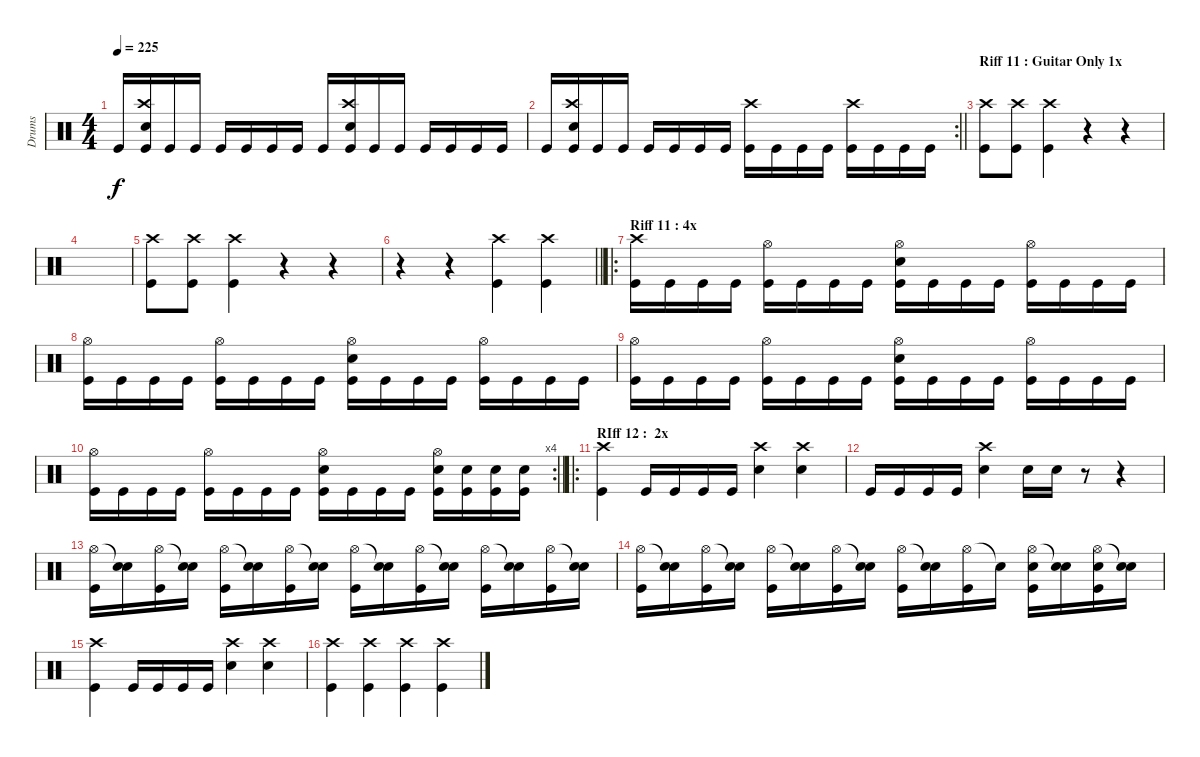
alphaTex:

\track ("Drums" "Drums") {instrument percussion}
\staff {score}
\articulation defaults
\ts (4 4)
\tempo 225
\clef neutral
\ks c "Kick (hit)".16{dy f}
("Crash high (hit)" "Electric Snare (hit)" "Kick (hit)").16 "Kick (hit)".16 "Kick (hit)".16 "Kick (hit)".16 "Kick (hit)".16 "Kick (hit)".16 "Kick (hit)".16 "Kick (hit)".16 ("Crash high (hit)" "Electric Snare (hit)" "Kick (hit)").16 "Kick (hit)".16 "Kick (hit)".16 "Kick (hit)".16 "Kick (hit)".16 "Kick (hit)".16 "Kick (hit)".16 |
\rc 2
\barLineRight lightlight "Kick (hit)".16
("Crash high (hit)" "Electric Snare (hit)" "Kick (hit)").16 "Kick (hit)".16 "Kick (hit)".16 "Kick (hit)".16 "Kick (hit)".16 "Kick (hit)".16 "Kick (hit)".16 ("Crash high (hit)" "Kick (hit)").16 "Kick (hit)".16 "Kick (hit)".16 "Kick (hit)".16 ("Crash high (hit)" "Kick (hit)").16 "Kick (hit)".16 "Kick (hit)".16 "Kick (hit)".16 |
\section ("" "Riff 11 : Guitar Only 1x")
("Crash high (hit)" "Kick (hit)").8 ("Crash high (hit)" "Kick (hit)").8 ("Crash high (hit)" "Kick (hit)").4 r.4 r.4 |
|
("Crash high (hit)" "Kick (hit)").8 ("Crash high (hit)" "Kick (hit)").8 ("Crash high (hit)" "Kick (hit)").4 r.4 r.4 |
\barLineRight lightlight
r.4 r.4 ("Crash high (hit)" "Kick (hit)").4 ("Crash high (hit)" "Kick (hit)").4 |
\ro
\section ("" "Riff 11 : 4x")
("Crash high (hit)" "Kick (hit)").16 "Kick (hit)".16 "Kick (hit)".16 "Kick (hit)".16 ("Hi-Hat (open)" "Kick (hit)").16 "Kick (hit)".16 "Kick (hit)".16 "Kick (hit)".16 ("Hi-Hat (open)" "Electric Snare (hit)" "Kick (hit)").16 "Kick (hit)".16 "Kick (hit)".16 "Kick (hit)".16 ("Hi-Hat (open)" "Kick (hit)").16 "Kick (hit)".16 "Kick (hit)".16 "Kick (hit)".16 |
("Hi-Hat (open)" "Kick (hit)").16 "Kick (hit)".16 "Kick (hit)".16 "Kick (hit)".16 ("Hi-Hat (open)" "Kick (hit)").16 "Kick (hit)".16 "Kick (hit)".16 "Kick (hit)".16 ("Hi-Hat (open)" "Electric Snare (hit)" "Kick (hit)").16 "Kick (hit)".16 "Kick (hit)".16 "Kick (hit)".16 ("Hi-Hat (open)" "Kick (hit)").16 "Kick (hit)".16 "Kick (hit)".16 "Kick (hit)".16 |
("Hi-Hat (open)" "Kick (hit)").16 "Kick (hit)".16 "Kick (hit)".16 "Kick (hit)".16 ("Hi-Hat (open)" "Kick (hit)").16 "Kick (hit)".16 "Kick (hit)".16 "Kick (hit)".16 ("Hi-Hat (open)" "Electric Snare (hit)" "Kick (hit)").16 "Kick (hit)".16 "Kick (hit)".16 "Kick (hit)".16 ("Hi-Hat (open)" "Kick (hit)").16 "Kick (hit)".16 "Kick (hit)".16 "Kick (hit)".16 |
\rc 4
\barLineRight lightlight
("Hi-Hat (open)" "Kick (hit)").16 "Kick (hit)".16 "Kick (hit)".16 "Kick (hit)".16 ("Hi-Hat (open)" "Kick (hit)").16 "Kick (hit)".16 "Kick (hit)".16 "Kick (hit)".16 ("Hi-Hat (open)" "Electric Snare (hit)" "Kick (hit)").16 "Kick (hit)".16 "Kick (hit)".16 "Kick (hit)".16 ("Hi-Hat (open)" "Electric Snare (hit)" "Kick (hit)").16 ("Electric Snare (hit)" "Kick (hit)").16 ("Electric Snare (hit)" "Kick (hit)").16 ("Electric Snare (hit)" "Kick (hit)").16 |
\ro
\section ("" "RIff 12 :  2x")
("Crash high (hit)" "Kick (hit)").4 "Kick (hit)".16 "Kick (hit)".16 "Kick (hit)".16 "Kick (hit)".16 ("Crash high (hit)" "Electric Snare (hit)").4 ("Crash high (hit)" "Electric Snare (hit)").4 |
"Kick (hit)".16 "Kick (hit)".16 "Kick (hit)".16 "Kick (hit)".16 ("Crash high (hit)" "Electric Snare (hit)").4 "Electric Snare (hit)".16 "Electric Snare (hit)".16 r.8 r.4 |
("Hi-Hat (open)" "Kick (hit)").16 ("Snare (hit)"{t} "Electric Snare (hit)").16 ("Hi-Hat (open)" "Kick (hit)").16 ("Snare (hit)"{t} "Electric Snare (hit)").16 ("Hi-Hat (open)" "Kick (hit)").16 ("Snare (hit)"{t} "Electric Snare (hit)").16 ("Hi-Hat (open)" "Kick (hit)").16 ("Snare (hit)"{t} "Electric Snare (hit)").16 ("Hi-Hat (open)" "Kick (hit)").16 ("Snare (hit)"{t} "Electric Snare (hit)").16 ("Hi-Hat (open)" "Kick (hit)").16 ("Snare (hit)"{t} "Electric Snare (hit)").16 ("Hi-Hat (open)" "Kick (hit)").16 ("Snare (hit)"{t} "Electric Snare (hit)").16 ("Hi-Hat (open)" "Kick (hit)").16 ("Snare (hit)"{t} "Electric Snare (hit)").16 |
("Hi-Hat (open)" "Kick (hit)").16 ("Snare (hit)"{t} "Electric Snare (hit)").16 ("Hi-Hat (open)" "Kick (hit)").16 ("Snare (hit)"{t} "Electric Snare (hit)").16 ("Hi-Hat (open)" "Kick (hit)").16 ("Snare (hit)"{t} "Electric Snare (hit)").16 ("Hi-Hat (open)" "Kick (hit)").16 ("Snare (hit)"{t} "Electric Snare (hit)").16 ("Hi-Hat (open)" "Kick (hit)").16 ("Snare (hit)"{t} "Electric Snare (hit)").16 ("Hi-Hat (open)" "Kick (hit)").16 "Snare (hit)"{t}.16 ("Hi-Hat (open)" "Electric Snare (hit)" "Kick (hit)").16 ("Snare (hit)"{t} "Electric Snare (hit)").16 ("Hi-Hat (open)" "Electric Snare (hit)" "Kick (hit)").16 ("Snare (hit)"{t} "Electric Snare (hit)").16 |
("Crash high (hit)" "Kick (hit)").4 "Kick (hit)".16 "Kick (hit)".16 "Kick (hit)".16 "Kick (hit)".16 ("Crash high (hit)" "Electric Snare (hit)").4 ("Crash high (hit)" "Electric Snare (hit)").4 |
("Crash high (hit)" "Kick (hit)").4 ("Crash high (hit)" "Kick (hit)").4 ("Crash high (hit)" "Kick (hit)").4 ("Crash high (hit)" "Kick (hit)").4
